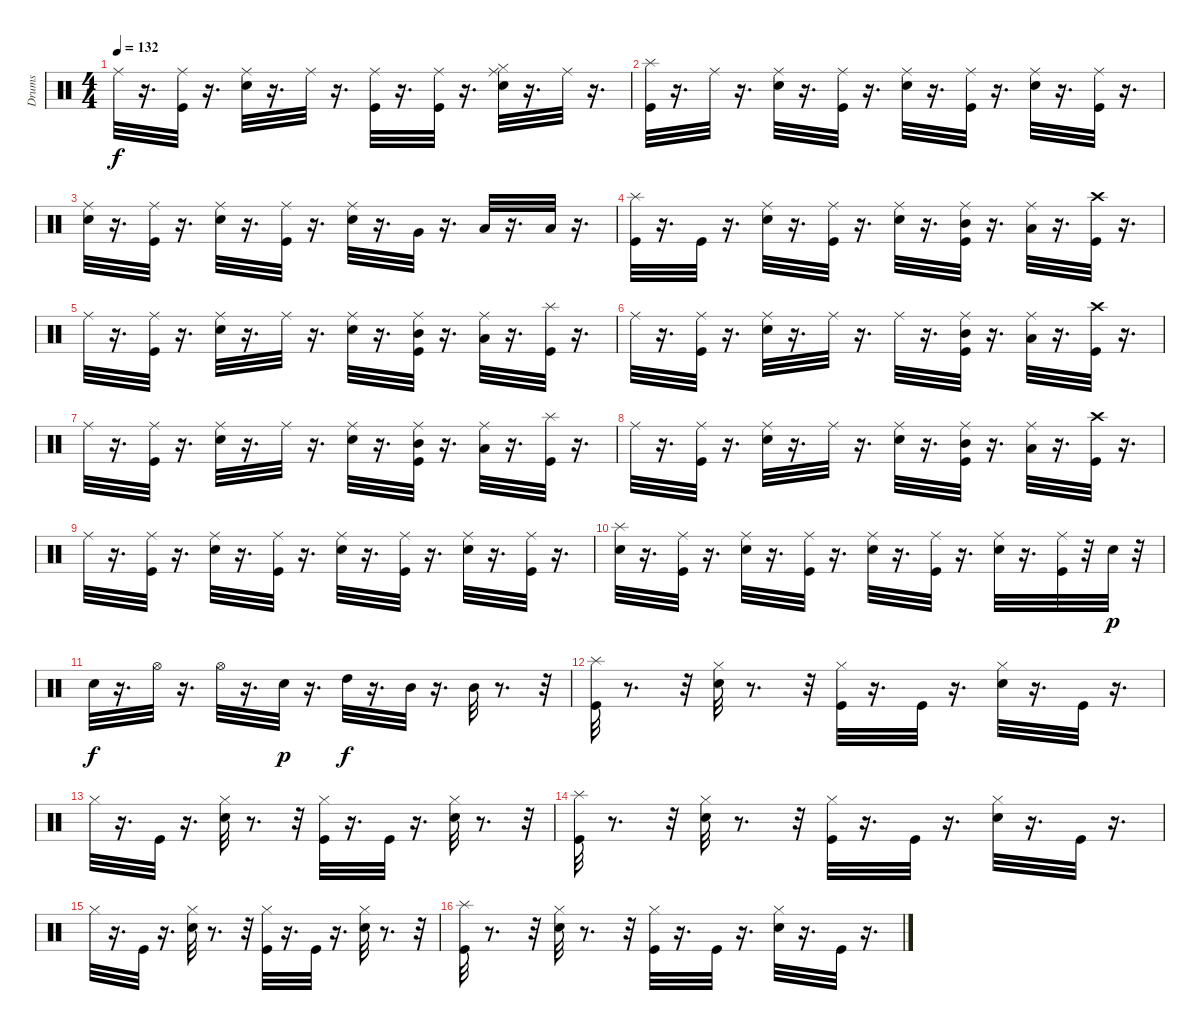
\track ("Drums" "Drums") {instrument percussion}
\staff {score}
\articulation defaults
\ts (4 4)
\tempo 132
\clef neutral
\ks c "Ride (middle)".32{dy f}
r.16{d} ("Ride (middle)" "Kick (hit)").32 r.16{d} ("Ride (middle)" "Snare (hit) 2").32 r.16{d} "Ride (middle)".32 r.16{d} ("Ride (middle)" "Kick (hit)").32 r.16{d} ("Ride (middle)" "Kick (hit)").32 r.16{d} ("Ride (middle)" "Snare (hit) 2" "Hi-Hat (closed)").32 r.16{d} "Ride (middle)".32 r.16{d} |
("Splash (hit)" "Kick (hit)").32 r.16{d} "Ride (middle)".32 r.16{d} ("Ride (middle)" "Snare (hit) 2").32 r.16{d} ("Ride (middle)" "Kick (hit)").32 r.16{d} ("Snare (hit) 2" "Ride (middle)").32 r.16{d} ("Ride (middle)" "Kick (hit)").32 r.16{d} ("Ride (middle)" "Snare (hit) 2").32 r.16{d} ("Ride (middle)" "Kick (hit)").32 r.16{d} |
("Ride (middle)" "Snare (hit) 2").32 r.16{d} ("Ride (middle)" "Kick (hit)").32 r.16{d} ("Ride (middle)" "Snare (hit) 2").32 r.16{d} ("Ride (middle)" "Kick (hit)").32 r.16{d} ("Ride (middle)" "Snare (hit) 2").32 r.16{d} "Very Low Tom (hit)".32 r.16{d} "Low Floor Tom (hit)".32 r.16{d} "Low Floor Tom (hit)".32 r.16{d} |
("Kick (hit)" "Splash (hit)").32 r.16{d} "Kick (hit)".32 r.16{d} ("Ride (middle)" "Snare (hit) 2").32 r.16{d} ("Ride (middle)" "Kick (hit)").32 r.16{d} ("Snare (hit) 2" "Ride (middle)").32 r.16{d} ("Ride (middle)" "Kick (hit)" "Mid Tom (hit)").32 r.16{d} ("Ride (middle)" "Low Tom (hit)").32 r.16{d} ("Crash high (hit)" "Kick (hit)").32 r.16{d} |
"Ride (middle)".32 r.16{d} ("Ride (middle)" "Kick (hit)").32 r.16{d} ("Ride (middle)" "Snare (hit) 2").32 r.16{d} "Ride (middle)".32 r.16{d} ("Snare (hit) 2" "Ride (middle)").32 r.16{d} ("Ride (middle)" "Mid Tom (hit)" "Kick (hit)").32 r.16{d} ("Ride (middle)" "Low Tom (hit)").32 r.16{d} ("Splash (hit)" "Kick (hit)").32 r.16{d} |
"Ride (middle)".32 r.16{d} ("Kick (hit)" "Ride (middle)").32 r.16{d} ("Ride (middle)" "Snare (hit) 2").32 r.16{d} "Ride (middle)".32 r.16{d} "Ride (middle)".32 r.16{d} ("Kick (hit)" "Ride (middle)" "Mid Tom (hit)").32 r.16{d} ("Ride (middle)" "Low Tom (hit)").32 r.16{d} ("Kick (hit)" "Crash high (hit)").32 r.16{d} |
"Ride (middle)".32 r.16{d} ("Ride (middle)" "Kick (hit)").32 r.16{d} ("Ride (middle)" "Snare (hit) 2").32 r.16{d} "Ride (middle)".32 r.16{d} ("Ride (middle)" "Snare (hit) 2").32 r.16{d} ("Ride (middle)" "Kick (hit)" "Mid Tom (hit)").32 r.16{d} ("Ride (middle)" "Low Tom (hit)").32 r.16{d} ("Kick (hit)" "Splash (hit)").32 r.16{d} |
"Ride (middle)".32 r.16{d} ("Ride (middle)" "Kick (hit)").32 r.16{d} ("Ride (middle)" "Snare (hit) 2").32 r.16{d} "Ride (middle)".32 r.16{d} ("Ride (middle)" "Snare (hit) 2").32 r.16{d} ("Mid Tom (hit)" "Kick (hit)" "Ride (middle)").32 r.16{d} ("Low Tom (hit)" "Ride (middle)").32 r.16{d} ("Crash high (hit)" "Kick (hit)").32 r.16{d} |
"Ride (middle)".32 r.16{d} ("Kick (hit)" "Ride (middle)").32 r.16{d} ("Ride (middle)" "Snare (hit) 2").32 r.16{d} ("Ride (middle)" "Kick (hit)").32 r.16{d} ("Snare (hit) 2" "Ride (middle)").32 r.16{d} ("Ride (middle)" "Kick (hit)").32 r.16{d} ("Ride (middle)" "Snare (hit) 2").32 r.16{d} ("Kick (hit)" "Ride (middle)").32 r.16{d} |
("Snare (hit) 2" "Splash (hit)").32 r.16{d} ("Kick (hit)" "Ride (middle)").32 r.16{d} ("Ride (middle)" "Snare (hit) 2").32 r.16{d} ("Ride (middle)" "Kick (hit)").32 r.16{d} ("Ride (middle)" "Snare (hit) 2").32 r.16{d} ("Ride (middle)" "Kick (hit)").32 r.16{d} ("Ride (middle)" "Snare (hit) 2").32 r.16{d} ("Ride (middle)" "Kick (hit)").32 r.32 "Snare (hit) 2".32{dy p} r.32 |
"Snare (hit) 2".32{dy f} r.16{d} "Hi-Hat (open)".32 r.16{d} "Hi-Hat (open)".32 r.16{d} "Snare (hit) 2".32{dy p} r.16{d} "High Tom (hit)".32{dy f} r.16{d} "Mid Tom (hit)".32 r.16{d} "Mid Tom (hit)".32 r.8{d} r.32 |
("Splash (hit)" "Kick (hit)").32 r.8{d} r.32 ("Hi-Hat (closed)" "Snare (hit) 2").32 r.8{d} r.32 ("Kick (hit)" "Hi-Hat (closed)").32 r.16{d} "Kick (hit)".32 r.16{d} ("Hi-Hat (closed)" "Snare (hit) 2").32 r.16{d} "Kick (hit)".32 r.16{d} |
"Hi-Hat (closed)".32 r.16{d} "Kick (hit)".32 r.16{d} ("Hi-Hat (closed)" "Snare (hit) 2").32 r.8{d} r.32 ("Hi-Hat (closed)" "Kick (hit)").32 r.16{d} "Kick (hit)".32 r.16{d} ("Snare (hit) 2" "Hi-Hat (closed)").32 r.8{d} r.32 |
("Splash (hit)" "Kick (hit)").32 r.8{d} r.32 ("Hi-Hat (closed)" "Snare (hit) 2").32 r.8{d} r.32 ("Kick (hit)" "Hi-Hat (closed)").32 r.16{d} "Kick (hit)".32 r.16{d} ("Hi-Hat (closed)" "Snare (hit) 2").32 r.16{d} "Kick (hit)".32 r.16{d} |
"Hi-Hat (closed)".32 r.16{d} "Kick (hit)".32 r.16{d} ("Hi-Hat (closed)" "Snare (hit) 2").32 r.8{d} r.32 ("Hi-Hat (closed)" "Kick (hit)").32 r.16{d} "Kick (hit)".32 r.16{d} ("Snare (hit) 2" "Hi-Hat (closed)").32 r.8{d} r.32 |
("Splash (hit)" "Kick (hit)").32 r.8{d} r.32 ("Hi-Hat (closed)" "Snare (hit) 2").32 r.8{d} r.32 ("Kick (hit)" "Hi-Hat (closed)").32 r.16{d} "Kick (hit)".32 r.16{d} ("Hi-Hat (closed)" "Snare (hit) 2").32 r.16{d} "Kick (hit)".32 r.16{d}
